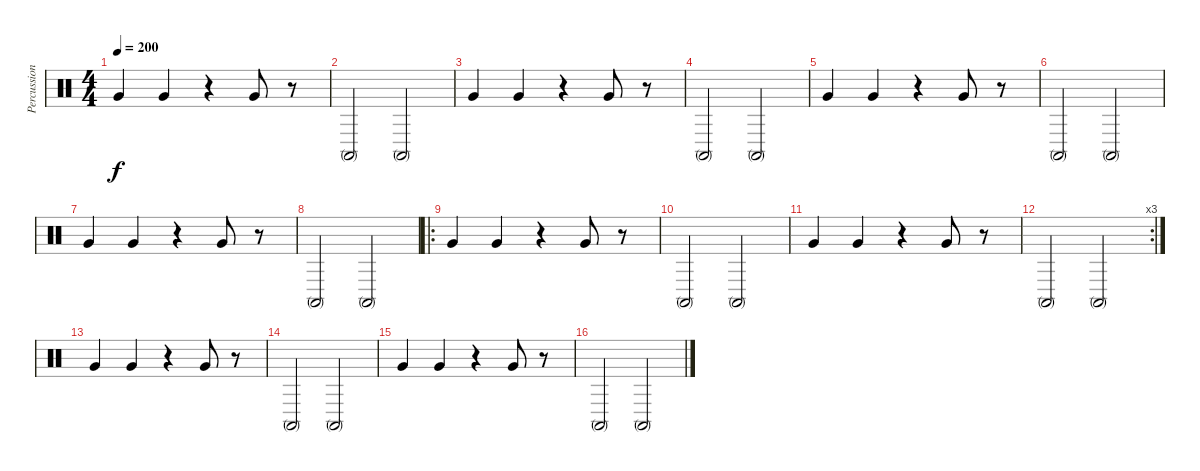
\track ("Percussions" "Percussion") {instrument percussion}
\staff {score}
\articulation defaults
\ts (4 4)
\tempo 200
\clef neutral
\ks c "Very Low Tom (hit)".4{dy f} "Very Low Tom (hit)".4
r.4 "Very Low Tom (hit)".8 r.8 |
"Conga high (mute)".2 "Conga high (mute)".2 |
"Very Low Tom (hit)".4 "Very Low Tom (hit)".4 r.4 "Very Low Tom (hit)".8 r.8 |
"Conga high (mute)".2 "Conga high (mute)".2 |
"Very Low Tom (hit)".4 "Very Low Tom (hit)".4 r.4 "Very Low Tom (hit)".8 r.8 |
"Conga high (mute)".2 "Conga high (mute)".2 |
"Very Low Tom (hit)".4 "Very Low Tom (hit)".4 r.4 "Very Low Tom (hit)".8 r.8 |
"Conga high (mute)".2 "Conga high (mute)".2 |
\ro "Very Low Tom (hit)".4 "Very Low Tom (hit)".4
r.4 "Very Low Tom (hit)".8 r.8 |
"Conga high (mute)".2 "Conga high (mute)".2 |
"Very Low Tom (hit)".4 "Very Low Tom (hit)".4 r.4 "Very Low Tom (hit)".8 r.8 |
\rc 3 "Conga high (mute)".2 "Conga high (mute)".2
|
"Very Low Tom (hit)".4 "Very Low Tom (hit)".4 r.4 "Very Low Tom (hit)".8 r.8 |
"Conga high (mute)".2 "Conga high (mute)".2 |
"Very Low Tom (hit)".4 "Very Low Tom (hit)".4 r.4 "Very Low Tom (hit)".8 r.8 |
"Conga high (mute)".2 "Conga high (mute)".2
